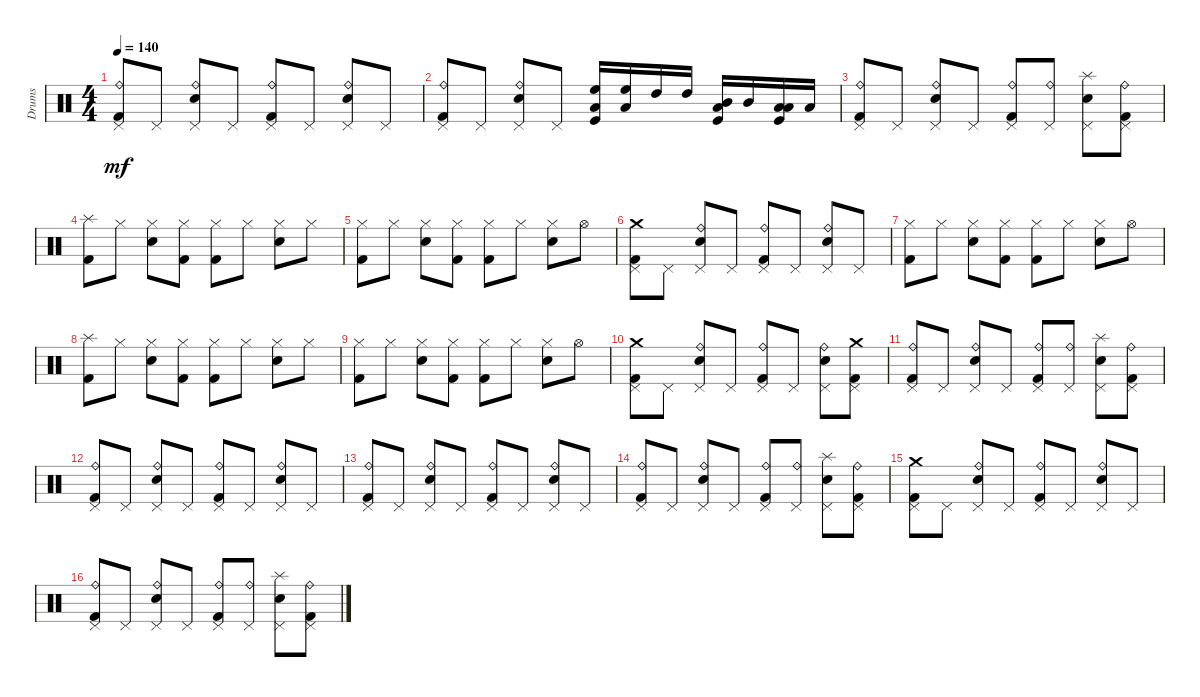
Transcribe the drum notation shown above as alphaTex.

\track ("Drums" "Drums") {instrument percussion}
\staff {score}
\articulation defaults
\ts (4 4)
\tempo 140
\clef neutral
\ks c
("Ride (bell)" "Pedal Hi-Hat (hit)" "Kick (hit) 2").8{dy mf} "Pedal Hi-Hat (hit)".8 ("Ride (bell)" "Pedal Hi-Hat (hit)" "Snare (hit) 2").8 "Pedal Hi-Hat (hit)".8 ("Ride (bell)" "Pedal Hi-Hat (hit)" "Kick (hit) 2").8 "Pedal Hi-Hat (hit)".8 ("Ride (bell)" "Pedal Hi-Hat (hit)" "Snare (hit) 2").8 "Pedal Hi-Hat (hit)".8 |
("Ride (bell)" "Pedal Hi-Hat (hit)" "Kick (hit) 2").8 "Pedal Hi-Hat (hit)".8 ("Ride (bell)" "Pedal Hi-Hat (hit)" "Snare (hit) 2").8 "Pedal Hi-Hat (hit)".8 ("High Floor Tom (hit)" "Low Floor Tom (hit)" "Kick (hit)").16 ("High Floor Tom (hit)" "Low Floor Tom (hit)").16 "High Tom (hit)".16 "High Tom (hit)".16 ("Mid Tom (hit)" "Low Floor Tom (hit)" "Kick (hit)").16 "Mid Tom (hit)".16 ("Low Tom (hit)" "Low Floor Tom (hit)" "Kick (hit)").16 "Low Tom (hit)".16 |
("Ride (bell)" "Pedal Hi-Hat (hit)" "Kick (hit) 2").8 "Pedal Hi-Hat (hit)".8 ("Ride (bell)" "Pedal Hi-Hat (hit)" "Snare (hit) 2").8 "Pedal Hi-Hat (hit)".8 ("Ride (bell)" "Pedal Hi-Hat (hit)" "Kick (hit) 2").8 ("Ride (bell)" "Pedal Hi-Hat (hit)").8 ("Splash (hit)" "Pedal Hi-Hat (hit)" "Snare (hit) 2").8 ("Ride (bell)" "Pedal Hi-Hat (hit)" "Kick (hit) 2").8 |
("Splash (hit)" "Kick (hit) 2").8 "Hi-Hat (closed)".8 ("Hi-Hat (closed)" "Snare (hit) 2").8 ("Hi-Hat (closed)" "Kick (hit) 2").8 ("Hi-Hat (closed)" "Kick (hit) 2").8 "Hi-Hat (closed)".8 ("Hi-Hat (closed)" "Snare (hit) 2").8 "Hi-Hat (closed)".8 |
("Hi-Hat (closed)" "Kick (hit) 2").8 "Hi-Hat (closed)".8 ("Hi-Hat (closed)" "Snare (hit) 2").8 ("Hi-Hat (closed)" "Kick (hit) 2").8 ("Hi-Hat (closed)" "Kick (hit) 2").8 "Hi-Hat (closed)".8 ("Hi-Hat (closed)" "Snare (hit) 2").8 "Hi-Hat (open)".8 |
("Crash medium (hit)" "Pedal Hi-Hat (hit)" "Kick (hit) 2").8 "Pedal Hi-Hat (hit)".8 ("Ride (bell)" "Pedal Hi-Hat (hit)" "Snare (hit) 2").8 "Pedal Hi-Hat (hit)".8 ("Ride (bell)" "Pedal Hi-Hat (hit)" "Kick (hit) 2").8 "Pedal Hi-Hat (hit)".8 ("Ride (bell)" "Pedal Hi-Hat (hit)" "Snare (hit) 2").8 "Pedal Hi-Hat (hit)".8 |
("Hi-Hat (closed)" "Kick (hit) 2").8 "Hi-Hat (closed)".8 ("Hi-Hat (closed)" "Snare (hit) 2").8 ("Hi-Hat (closed)" "Kick (hit) 2").8 ("Hi-Hat (closed)" "Kick (hit) 2").8 "Hi-Hat (closed)".8 ("Hi-Hat (closed)" "Snare (hit) 2").8 "Hi-Hat (open)".8 |
("Splash (hit)" "Kick (hit) 2").8 "Hi-Hat (closed)".8 ("Hi-Hat (closed)" "Snare (hit) 2").8 ("Hi-Hat (closed)" "Kick (hit) 2").8 ("Hi-Hat (closed)" "Kick (hit) 2").8 "Hi-Hat (closed)".8 ("Hi-Hat (closed)" "Snare (hit) 2").8 "Hi-Hat (closed)".8 |
("Hi-Hat (closed)" "Kick (hit) 2").8 "Hi-Hat (closed)".8 ("Hi-Hat (closed)" "Snare (hit) 2").8 ("Hi-Hat (closed)" "Kick (hit) 2").8 ("Hi-Hat (closed)" "Kick (hit) 2").8 "Hi-Hat (closed)".8 ("Hi-Hat (closed)" "Snare (hit) 2").8 "Hi-Hat (open)".8 |
("Crash medium (hit)" "Pedal Hi-Hat (hit)" "Kick (hit) 2").8 "Pedal Hi-Hat (hit)".8 ("Ride (bell)" "Pedal Hi-Hat (hit)" "Snare (hit) 2").8 "Pedal Hi-Hat (hit)".8 ("Ride (bell)" "Pedal Hi-Hat (hit)" "Kick (hit) 2").8 "Pedal Hi-Hat (hit)".8 ("Ride (bell)" "Pedal Hi-Hat (hit)" "Snare (hit) 2").8 ("Crash medium (hit)" "Pedal Hi-Hat (hit)" "Kick (hit) 2").8 |
("Ride (bell)" "Pedal Hi-Hat (hit)" "Kick (hit) 2").8 "Pedal Hi-Hat (hit)".8 ("Ride (bell)" "Pedal Hi-Hat (hit)" "Snare (hit) 2").8 "Pedal Hi-Hat (hit)".8 ("Ride (bell)" "Pedal Hi-Hat (hit)" "Kick (hit) 2").8 ("Ride (bell)" "Pedal Hi-Hat (hit)").8 ("Splash (hit)" "Pedal Hi-Hat (hit)" "Snare (hit) 2").8 ("Ride (bell)" "Pedal Hi-Hat (hit)" "Kick (hit) 2").8 |
("Ride (bell)" "Pedal Hi-Hat (hit)" "Kick (hit) 2").8 "Pedal Hi-Hat (hit)".8 ("Ride (bell)" "Pedal Hi-Hat (hit)" "Snare (hit) 2").8 "Pedal Hi-Hat (hit)".8 ("Ride (bell)" "Pedal Hi-Hat (hit)" "Kick (hit) 2").8 "Pedal Hi-Hat (hit)".8 ("Ride (bell)" "Pedal Hi-Hat (hit)" "Snare (hit) 2").8 "Pedal Hi-Hat (hit)".8 |
("Ride (bell)" "Pedal Hi-Hat (hit)" "Kick (hit) 2").8 "Pedal Hi-Hat (hit)".8 ("Ride (bell)" "Pedal Hi-Hat (hit)" "Snare (hit) 2").8 "Pedal Hi-Hat (hit)".8 ("Ride (bell)" "Pedal Hi-Hat (hit)" "Kick (hit) 2").8 "Pedal Hi-Hat (hit)".8 ("Ride (bell)" "Pedal Hi-Hat (hit)" "Snare (hit) 2").8 "Pedal Hi-Hat (hit)".8 |
("Ride (bell)" "Pedal Hi-Hat (hit)" "Kick (hit) 2").8 "Pedal Hi-Hat (hit)".8 ("Ride (bell)" "Pedal Hi-Hat (hit)" "Snare (hit) 2").8 "Pedal Hi-Hat (hit)".8 ("Ride (bell)" "Pedal Hi-Hat (hit)" "Kick (hit) 2").8 ("Ride (bell)" "Pedal Hi-Hat (hit)").8 ("Splash (hit)" "Pedal Hi-Hat (hit)" "Snare (hit) 2").8 ("Ride (bell)" "Pedal Hi-Hat (hit)" "Kick (hit) 2").8 |
("Crash medium (hit)" "Pedal Hi-Hat (hit)" "Kick (hit) 2").8 "Pedal Hi-Hat (hit)".8 ("Ride (bell)" "Pedal Hi-Hat (hit)" "Snare (hit) 2").8 "Pedal Hi-Hat (hit)".8 ("Ride (bell)" "Pedal Hi-Hat (hit)" "Kick (hit) 2").8 "Pedal Hi-Hat (hit)".8 ("Ride (bell)" "Pedal Hi-Hat (hit)" "Snare (hit) 2").8 "Pedal Hi-Hat (hit)".8 |
("Ride (bell)" "Pedal Hi-Hat (hit)" "Kick (hit) 2").8 "Pedal Hi-Hat (hit)".8 ("Ride (bell)" "Pedal Hi-Hat (hit)" "Snare (hit) 2").8 "Pedal Hi-Hat (hit)".8 ("Ride (bell)" "Pedal Hi-Hat (hit)" "Kick (hit) 2").8 ("Ride (bell)" "Pedal Hi-Hat (hit)").8 ("Splash (hit)" "Pedal Hi-Hat (hit)" "Snare (hit) 2").8 ("Ride (bell)" "Pedal Hi-Hat (hit)" "Kick (hit) 2").8
